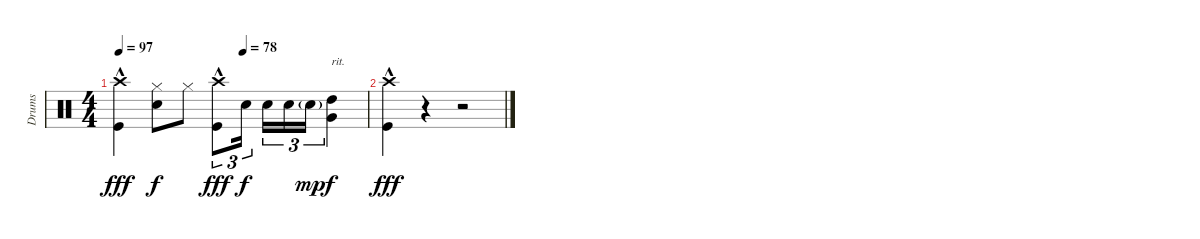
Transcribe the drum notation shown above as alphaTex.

\track ("Drums" "Drums") {instrument percussion}
\staff {score}
\articulation defaults
\ts (4 4)
\tempo 97
\tempo (78 0.5)
\clef neutral
\ks c
("Crash high (hit)" "Kick (hit)"{hac}).4{dy fff} ("Hi-Hat (closed)" "Snare (hit) 2").8{dy f} "Hi-Hat (closed)".8 ("Crash high (hit)" "Kick (hit)"{hac}).8{tu (3 2) dy fff} "Snare (hit) 2".16{tu (3 2) dy f beam splitsecondary} "Snare (hit) 2".16{tu (3 2)} "Snare (hit) 2".16{tu (3 2)} "Snare (hit) 2"{g}.16{tu (3 2) dy mp} ("High Tom (hit)" "Very Low Tom (hit)").4{txt "rit." dy f} |
("Crash high (hit)" "Kick (hit)"{hac}).4{dy fff} r.4 r.2
